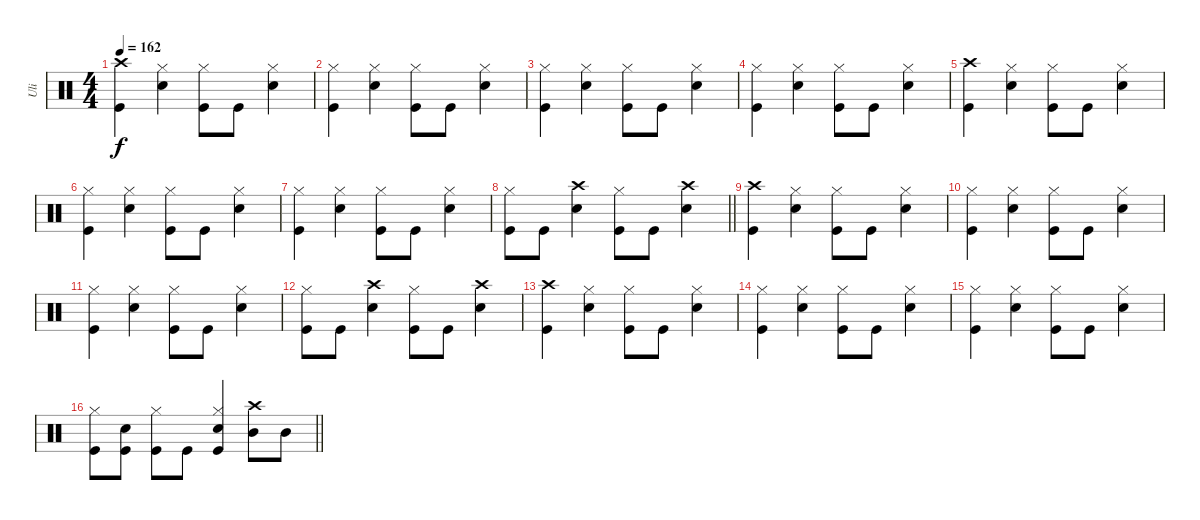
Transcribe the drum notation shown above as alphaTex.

\track ("Uli" "Uli") {instrument percussion}
\staff {score}
\articulation defaults
\ts (4 4)
\tempo 162
\clef neutral
\ks aminor
("Crash high (hit)" "Kick (hit)").4{dy f} ("Hi-Hat (closed)" "Snare (hit) 2").4 ("Hi-Hat (closed)" "Kick (hit)").8 "Kick (hit)".8 ("Hi-Hat (closed)" "Snare (hit) 2").4 |
("Hi-Hat (closed)" "Kick (hit)").4 ("Hi-Hat (closed)" "Snare (hit) 2").4 ("Hi-Hat (closed)" "Kick (hit)").8 "Kick (hit)".8 ("Hi-Hat (closed)" "Snare (hit) 2").4 |
("Hi-Hat (closed)" "Kick (hit)").4 ("Hi-Hat (closed)" "Snare (hit) 2").4 ("Hi-Hat (closed)" "Kick (hit)").8 "Kick (hit)".8 ("Hi-Hat (closed)" "Snare (hit) 2").4 |
("Hi-Hat (closed)" "Kick (hit)").4 ("Hi-Hat (closed)" "Snare (hit) 2").4 ("Hi-Hat (closed)" "Kick (hit)").8 "Kick (hit)".8 ("Hi-Hat (closed)" "Snare (hit) 2").4 |
("Crash high (hit)" "Kick (hit)").4 ("Hi-Hat (closed)" "Snare (hit) 2").4 ("Hi-Hat (closed)" "Kick (hit)").8 "Kick (hit)".8 ("Hi-Hat (closed)" "Snare (hit) 2").4 |
("Hi-Hat (closed)" "Kick (hit)").4 ("Hi-Hat (closed)" "Snare (hit) 2").4 ("Hi-Hat (closed)" "Kick (hit)").8 "Kick (hit)".8 ("Hi-Hat (closed)" "Snare (hit) 2").4 |
("Hi-Hat (closed)" "Kick (hit)").4 ("Hi-Hat (closed)" "Snare (hit) 2").4 ("Hi-Hat (closed)" "Kick (hit)").8 "Kick (hit)".8 ("Hi-Hat (closed)" "Snare (hit) 2").4 |
\barLineRight lightlight
("Hi-Hat (closed)" "Kick (hit)").8 "Kick (hit)".8 ("Crash high (hit)" "Snare (hit) 2").4 ("Hi-Hat (closed)" "Kick (hit)").8 "Kick (hit)".8 ("Crash high (hit)" "Snare (hit) 2").4 |
("Crash high (hit)" "Kick (hit)").4 ("Hi-Hat (closed)" "Snare (hit) 2").4 ("Hi-Hat (closed)" "Kick (hit)").8 "Kick (hit)".8 ("Hi-Hat (closed)" "Snare (hit) 2").4 |
("Hi-Hat (closed)" "Kick (hit)").4 ("Hi-Hat (closed)" "Snare (hit) 2").4 ("Hi-Hat (closed)" "Kick (hit)").8 "Kick (hit)".8 ("Hi-Hat (closed)" "Snare (hit) 2").4 |
("Hi-Hat (closed)" "Kick (hit)").4 ("Hi-Hat (closed)" "Snare (hit) 2").4 ("Hi-Hat (closed)" "Kick (hit)").8 "Kick (hit)".8 ("Hi-Hat (closed)" "Snare (hit) 2").4 |
("Hi-Hat (closed)" "Kick (hit)").8 "Kick (hit)".8 ("Crash high (hit)" "Snare (hit) 2").4 ("Hi-Hat (closed)" "Kick (hit)").8 "Kick (hit)".8 ("Crash high (hit)" "Snare (hit) 2").4 |
("Crash high (hit)" "Kick (hit)").4 ("Hi-Hat (closed)" "Snare (hit) 2").4 ("Hi-Hat (closed)" "Kick (hit)").8 "Kick (hit)".8 ("Hi-Hat (closed)" "Snare (hit) 2").4 |
("Hi-Hat (closed)" "Kick (hit)").4 ("Hi-Hat (closed)" "Snare (hit) 2").4 ("Hi-Hat (closed)" "Kick (hit)").8 "Kick (hit)".8 ("Hi-Hat (closed)" "Snare (hit) 2").4 |
("Hi-Hat (closed)" "Kick (hit)").4 ("Hi-Hat (closed)" "Snare (hit) 2").4 ("Hi-Hat (closed)" "Kick (hit)").8 "Kick (hit)".8 ("Hi-Hat (closed)" "Snare (hit) 2").4 |
\barLineRight lightlight
("Hi-Hat (closed)" "Kick (hit)").8 ("Snare (hit) 2" "Kick (hit)").8 ("Hi-Hat (closed)" "Kick (hit)").8 "Kick (hit)".8 ("Hi-Hat (closed)" "Snare (hit) 2" "Kick (hit)").4 ("Crash high (hit)" "Mid Tom (hit)").8 "Mid Tom (hit)".8
